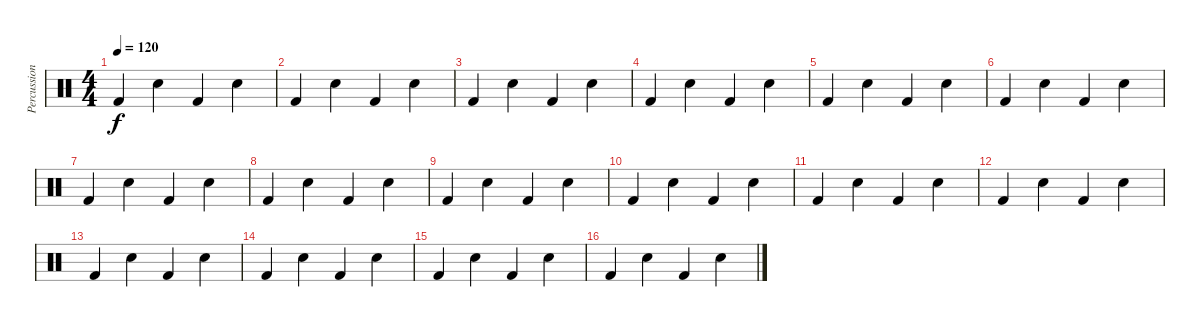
\track ("Percussions" "Percussion") {instrument percussion}
\staff {score}
\articulation defaults
\ts (4 4)
\tempo 120
\clef neutral
\ks c "Kick (hit) 2".4{dy f} "Snare (hit) 2".4 "Kick (hit) 2".4 "Snare (hit) 2".4
|
"Kick (hit) 2".4 "Snare (hit) 2".4 "Kick (hit) 2".4 "Snare (hit) 2".4 |
"Kick (hit) 2".4 "Snare (hit) 2".4 "Kick (hit) 2".4 "Snare (hit) 2".4 |
"Kick (hit) 2".4 "Snare (hit) 2".4 "Kick (hit) 2".4 "Snare (hit) 2".4 |
"Kick (hit) 2".4 "Snare (hit) 2".4 "Kick (hit) 2".4 "Snare (hit) 2".4 |
"Kick (hit) 2".4 "Snare (hit) 2".4 "Kick (hit) 2".4 "Snare (hit) 2".4 |
"Kick (hit) 2".4 "Snare (hit) 2".4 "Kick (hit) 2".4 "Snare (hit) 2".4 |
"Kick (hit) 2".4 "Snare (hit) 2".4 "Kick (hit) 2".4 "Snare (hit) 2".4 |
"Kick (hit) 2".4 "Snare (hit) 2".4 "Kick (hit) 2".4 "Snare (hit) 2".4 |
"Kick (hit) 2".4 "Snare (hit) 2".4 "Kick (hit) 2".4 "Snare (hit) 2".4 |
"Kick (hit) 2".4 "Snare (hit) 2".4 "Kick (hit) 2".4 "Snare (hit) 2".4 |
"Kick (hit) 2".4 "Snare (hit) 2".4 "Kick (hit) 2".4 "Snare (hit) 2".4 |
"Kick (hit) 2".4 "Snare (hit) 2".4 "Kick (hit) 2".4 "Snare (hit) 2".4 |
"Kick (hit) 2".4 "Snare (hit) 2".4 "Kick (hit) 2".4 "Snare (hit) 2".4 |
"Kick (hit) 2".4 "Snare (hit) 2".4 "Kick (hit) 2".4 "Snare (hit) 2".4 |
"Kick (hit) 2".4 "Snare (hit) 2".4 "Kick (hit) 2".4 "Snare (hit) 2".4
